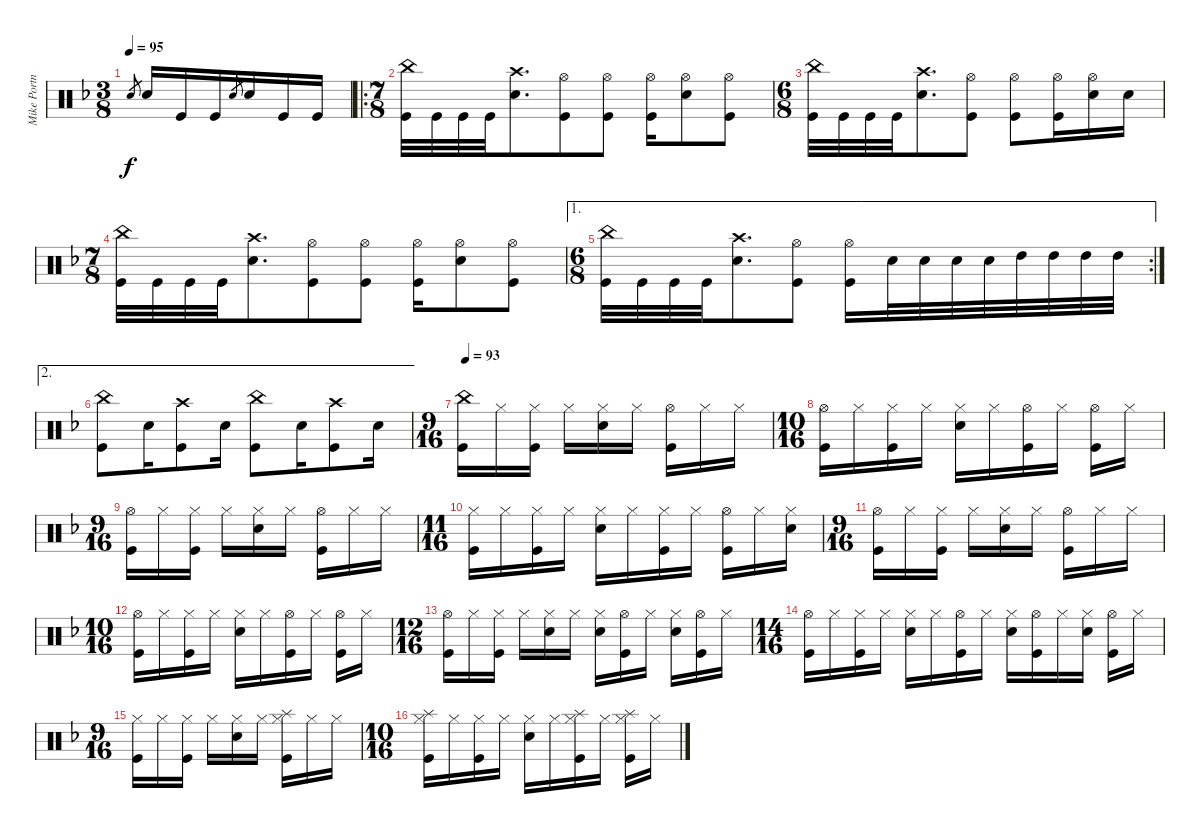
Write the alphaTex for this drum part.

\track ("Mike Portnoy - Drums" "Mike Portn") {instrument percussion}
\staff {score}
\articulation defaults
\ts (3 8)
\tempo 95
\clef neutral
\ks dminor "Snare (hit) 2".8{gr dy f} "Snare (hit) 2".16 "Kick (hit)".16 "Kick (hit)".16 "Snare (hit) 2".8{gr} "Snare (hit) 2".16 "Kick (hit)".16 "Kick (hit)".16
|
\ro
\ts (7 8)
("China (hit)" "Kick (hit)").32 "Kick (hit)".32 "Kick (hit)".32 "Kick (hit)".32 ("Crash high (hit)" "Snare (hit) 2").8{d} ("Hi-Hat (open)" "Kick (hit)").8 ("Hi-Hat (open)" "Kick (hit)").8 ("Hi-Hat (open)" "Kick (hit)").16 ("Hi-Hat (open)" "Snare (hit) 2").8 ("Hi-Hat (open)" "Kick (hit)").8 |
\ts (6 8)
("China (hit)" "Kick (hit)").32 "Kick (hit)".32 "Kick (hit)".32 "Kick (hit)".32 ("Crash high (hit)" "Snare (hit) 2").8{d} ("Hi-Hat (open)" "Kick (hit)").8 ("Hi-Hat (open)" "Kick (hit)").8 ("Hi-Hat (open)" "Kick (hit)").16 ("Hi-Hat (open)" "Snare (hit) 2").16 "Snare (hit) 2".16 |
\ts (7 8)
("China (hit)" "Kick (hit)").32 "Kick (hit)".32 "Kick (hit)".32 "Kick (hit)".32 ("Crash high (hit)" "Snare (hit) 2").8{d} ("Hi-Hat (open)" "Kick (hit)").8 ("Hi-Hat (open)" "Kick (hit)").8 ("Hi-Hat (open)" "Kick (hit)").16 ("Hi-Hat (open)" "Snare (hit) 2").8 ("Hi-Hat (open)" "Kick (hit)").8 |
\ae 1
\rc 2
\ts (6 8)
("China (hit)" "Kick (hit)").32 "Kick (hit)".32 "Kick (hit)".32 "Kick (hit)".32 ("Crash high (hit)" "Snare (hit) 2").8{d} ("Hi-Hat (open)" "Kick (hit)").8 ("Hi-Hat (open)" "Kick (hit)").16 "Snare (hit) 2".32 "Snare (hit) 2".32 "Snare (hit) 2".32 "Snare (hit) 2".32 "High Tom (hit)".32 "High Tom (hit)".32 "High Tom (hit)".32 "High Tom (hit)".32 |
\ae 2
("China (hit)" "Kick (hit)").8 "Snare (hit) 2".16 ("Crash high (hit)" "Kick (hit)").8 "Snare (hit) 2".16 ("China (hit)" "Kick (hit)").8 "Snare (hit) 2".16 ("Crash high (hit)" "Kick (hit)").8 "Snare (hit) 2".16 |
\ts (9 16)
\tempo 93
("China (hit)" "Kick (hit)").16 "Hi-Hat (closed)".16 ("Hi-Hat (closed)" "Kick (hit)").16 "Hi-Hat (closed)".16 ("Hi-Hat (closed)" "Snare (hit) 2").16 "Hi-Hat (closed)".16 ("Hi-Hat (open)" "Kick (hit)").16 "Hi-Hat (closed)".16 "Hi-Hat (closed)".16 |
\ts (10 16)
("Hi-Hat (open)" "Kick (hit)").16 "Hi-Hat (closed)".16 ("Hi-Hat (closed)" "Kick (hit)").16 "Hi-Hat (closed)".16 ("Hi-Hat (closed)" "Snare (hit) 2").16 "Hi-Hat (closed)".16 ("Hi-Hat (open)" "Kick (hit)").16 "Hi-Hat (closed)".16 ("Hi-Hat (open)" "Kick (hit)").16 "Hi-Hat (closed)".16 |
\ts (9 16)
("Hi-Hat (open)" "Kick (hit)").16 "Hi-Hat (closed)".16 ("Hi-Hat (closed)" "Kick (hit)").16 "Hi-Hat (closed)".16 ("Hi-Hat (closed)" "Snare (hit) 2").16 "Hi-Hat (closed)".16 ("Hi-Hat (open)" "Kick (hit)").16 "Hi-Hat (closed)".16 "Hi-Hat (closed)".16 |
\ts (11 16)
("Hi-Hat (closed)" "Kick (hit)").16 "Hi-Hat (closed)".16 ("Hi-Hat (closed)" "Kick (hit)").16 "Hi-Hat (closed)".16 ("Hi-Hat (closed)" "Snare (hit) 2").16 "Hi-Hat (closed)".16 ("Hi-Hat (closed)" "Kick (hit)").16 "Hi-Hat (closed)".16 ("Hi-Hat (open)" "Kick (hit)").16 "Hi-Hat (closed)".16 ("Hi-Hat (closed)" "Snare (hit) 2").16 |
\ts (9 16)
("Hi-Hat (open)" "Kick (hit)").16 "Hi-Hat (closed)".16 ("Hi-Hat (closed)" "Kick (hit)").16 "Hi-Hat (closed)".16 ("Hi-Hat (closed)" "Snare (hit) 2").16 "Hi-Hat (closed)".16 ("Hi-Hat (open)" "Kick (hit)").16 "Hi-Hat (closed)".16 "Hi-Hat (closed)".16 |
\ts (10 16)
("Hi-Hat (open)" "Kick (hit)").16 "Hi-Hat (closed)".16 ("Hi-Hat (closed)" "Kick (hit)").16 "Hi-Hat (closed)".16 ("Hi-Hat (closed)" "Snare (hit) 2").16 "Hi-Hat (closed)".16 ("Hi-Hat (open)" "Kick (hit)").16 "Hi-Hat (closed)".16 ("Hi-Hat (open)" "Kick (hit)").16 "Hi-Hat (closed)".16 |
\ts (12 16)
("Hi-Hat (open)" "Kick (hit)").16 "Hi-Hat (closed)".16 ("Hi-Hat (closed)" "Kick (hit)").16 "Hi-Hat (closed)".16 ("Hi-Hat (closed)" "Snare (hit) 2").16 "Hi-Hat (closed)".16 ("Hi-Hat (closed)" "Snare (hit) 2").16 ("Hi-Hat (open)" "Kick (hit)").16 "Hi-Hat (closed)".16 ("Hi-Hat (closed)" "Snare (hit) 2").16 ("Hi-Hat (open)" "Kick (hit)").16 "Hi-Hat (closed)".16 |
\ts (14 16)
("Hi-Hat (open)" "Kick (hit)").16 "Hi-Hat (closed)".16 ("Hi-Hat (closed)" "Kick (hit)").16 "Hi-Hat (closed)".16 ("Hi-Hat (closed)" "Snare (hit) 2").16 "Hi-Hat (closed)".16 ("Hi-Hat (open)" "Kick (hit)").16 "Hi-Hat (closed)".16 ("Hi-Hat (closed)" "Snare (hit) 2").16 ("Hi-Hat (open)" "Kick (hit)").16 "Hi-Hat (closed)".16 ("Hi-Hat (closed)" "Snare (hit) 2").16 ("Hi-Hat (open)" "Kick (hit)").16 "Hi-Hat (closed)".16 |
\ts (9 16)
("Hi-Hat (closed)" "Kick (hit)").16 "Hi-Hat (closed)".16 ("Hi-Hat (closed)" "Kick (hit)").16 "Hi-Hat (closed)".16 ("Hi-Hat (closed)" "Snare (hit) 2").16 "Hi-Hat (closed)".16 ("Hi-Hat (closed)" "Splash (hit)" "Kick (hit)").16 "Hi-Hat (closed)".16 "Hi-Hat (closed)".16 |
\ts (10 16)
("Hi-Hat (closed)" "Splash (hit)" "Kick (hit)").16 "Hi-Hat (closed)".16 ("Hi-Hat (closed)" "Kick (hit)").16 "Hi-Hat (closed)".16 ("Hi-Hat (closed)" "Snare (hit) 2").16 "Hi-Hat (closed)".16 ("Hi-Hat (closed)" "Splash (hit)" "Kick (hit)").16 "Hi-Hat (closed)".16 ("Hi-Hat (closed)" "Splash (hit)" "Kick (hit)").16 "Hi-Hat (closed)".16
